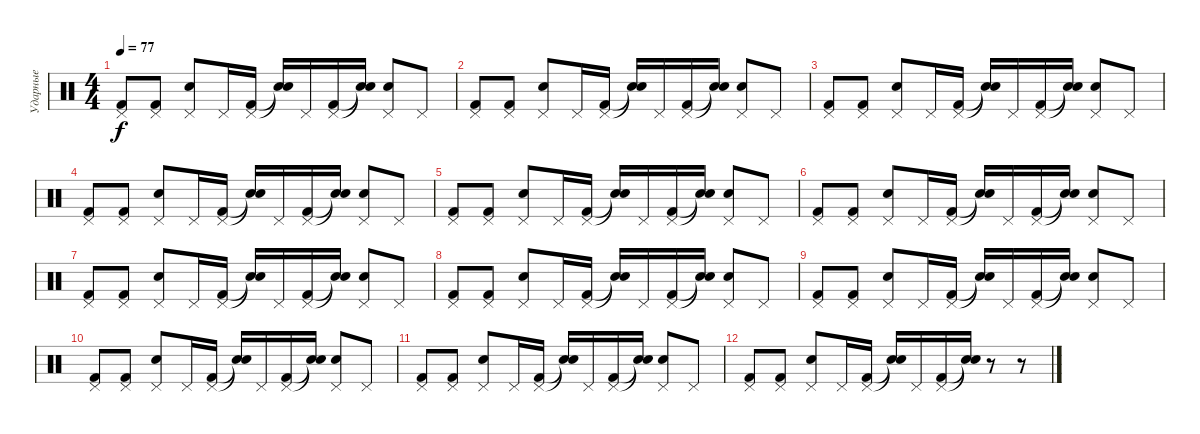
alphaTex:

\track ("Ударные" "Ударные") {instrument percussion}
\staff {score}
\articulation defaults
\ts (4 4)
\tempo 77
\clef neutral
\ks c
("Kick (hit) 2" "Pedal Hi-Hat (hit)").8{dy f} ("Kick (hit) 2" "Pedal Hi-Hat (hit)").8 ("Electric Snare (hit)" "Pedal Hi-Hat (hit)").8 "Pedal Hi-Hat (hit)".16 ("Kick (hit) 2" "Pedal Hi-Hat (hit)").16 ("Snare (hit)"{t} "Snare (hit)"{t}).16 "Pedal Hi-Hat (hit)".16 ("Kick (hit) 2" "Pedal Hi-Hat (hit)").16 ("Snare (hit)"{t} "Snare (hit)"{t}).16 ("Electric Snare (hit)" "Pedal Hi-Hat (hit)").8 "Pedal Hi-Hat (hit)".8 |
("Kick (hit) 2" "Pedal Hi-Hat (hit)").8 ("Kick (hit) 2" "Pedal Hi-Hat (hit)").8 ("Electric Snare (hit)" "Pedal Hi-Hat (hit)").8 "Pedal Hi-Hat (hit)".16 ("Kick (hit) 2" "Pedal Hi-Hat (hit)").16 ("Snare (hit)"{t} "Snare (hit)"{t}).16 "Pedal Hi-Hat (hit)".16 ("Kick (hit) 2" "Pedal Hi-Hat (hit)").16 ("Snare (hit)"{t} "Snare (hit)"{t}).16 ("Electric Snare (hit)" "Pedal Hi-Hat (hit)").8 "Pedal Hi-Hat (hit)".8 |
("Kick (hit) 2" "Pedal Hi-Hat (hit)").8 ("Kick (hit) 2" "Pedal Hi-Hat (hit)").8 ("Electric Snare (hit)" "Pedal Hi-Hat (hit)").8 "Pedal Hi-Hat (hit)".16 ("Kick (hit) 2" "Pedal Hi-Hat (hit)").16 ("Snare (hit)"{t} "Snare (hit)"{t}).16 "Pedal Hi-Hat (hit)".16 ("Kick (hit) 2" "Pedal Hi-Hat (hit)").16 ("Snare (hit)"{t} "Snare (hit)"{t}).16 ("Electric Snare (hit)" "Pedal Hi-Hat (hit)").8 "Pedal Hi-Hat (hit)".8 |
("Kick (hit) 2" "Pedal Hi-Hat (hit)").8 ("Kick (hit) 2" "Pedal Hi-Hat (hit)").8 ("Electric Snare (hit)" "Pedal Hi-Hat (hit)").8 "Pedal Hi-Hat (hit)".16 ("Kick (hit) 2" "Pedal Hi-Hat (hit)").16 ("Snare (hit)"{t} "Snare (hit)"{t}).16 "Pedal Hi-Hat (hit)".16 ("Kick (hit) 2" "Pedal Hi-Hat (hit)").16 ("Snare (hit)"{t} "Snare (hit)"{t}).16 ("Electric Snare (hit)" "Pedal Hi-Hat (hit)").8 "Pedal Hi-Hat (hit)".8 |
("Kick (hit) 2" "Pedal Hi-Hat (hit)").8 ("Kick (hit) 2" "Pedal Hi-Hat (hit)").8 ("Electric Snare (hit)" "Pedal Hi-Hat (hit)").8 "Pedal Hi-Hat (hit)".16 ("Kick (hit) 2" "Pedal Hi-Hat (hit)").16 ("Snare (hit)"{t} "Snare (hit)"{t}).16 "Pedal Hi-Hat (hit)".16 ("Kick (hit) 2" "Pedal Hi-Hat (hit)").16 ("Snare (hit)"{t} "Snare (hit)"{t}).16 ("Electric Snare (hit)" "Pedal Hi-Hat (hit)").8 "Pedal Hi-Hat (hit)".8 |
("Kick (hit) 2" "Pedal Hi-Hat (hit)").8 ("Kick (hit) 2" "Pedal Hi-Hat (hit)").8 ("Electric Snare (hit)" "Pedal Hi-Hat (hit)").8 "Pedal Hi-Hat (hit)".16 ("Kick (hit) 2" "Pedal Hi-Hat (hit)").16 ("Snare (hit)"{t} "Snare (hit)"{t}).16 "Pedal Hi-Hat (hit)".16 ("Kick (hit) 2" "Pedal Hi-Hat (hit)").16 ("Snare (hit)"{t} "Snare (hit)"{t}).16 ("Electric Snare (hit)" "Pedal Hi-Hat (hit)").8 "Pedal Hi-Hat (hit)".8 |
("Kick (hit) 2" "Pedal Hi-Hat (hit)").8 ("Kick (hit) 2" "Pedal Hi-Hat (hit)").8 ("Electric Snare (hit)" "Pedal Hi-Hat (hit)").8 "Pedal Hi-Hat (hit)".16 ("Kick (hit) 2" "Pedal Hi-Hat (hit)").16 ("Snare (hit)"{t} "Snare (hit)"{t}).16 "Pedal Hi-Hat (hit)".16 ("Kick (hit) 2" "Pedal Hi-Hat (hit)").16 ("Snare (hit)"{t} "Snare (hit)"{t}).16 ("Electric Snare (hit)" "Pedal Hi-Hat (hit)").8 "Pedal Hi-Hat (hit)".8 |
("Kick (hit) 2" "Pedal Hi-Hat (hit)").8 ("Kick (hit) 2" "Pedal Hi-Hat (hit)").8 ("Electric Snare (hit)" "Pedal Hi-Hat (hit)").8 "Pedal Hi-Hat (hit)".16 ("Kick (hit) 2" "Pedal Hi-Hat (hit)").16 ("Snare (hit)"{t} "Snare (hit)"{t}).16 "Pedal Hi-Hat (hit)".16 ("Kick (hit) 2" "Pedal Hi-Hat (hit)").16 ("Snare (hit)"{t} "Snare (hit)"{t}).16 ("Electric Snare (hit)" "Pedal Hi-Hat (hit)").8 "Pedal Hi-Hat (hit)".8 |
("Kick (hit) 2" "Pedal Hi-Hat (hit)").8 ("Kick (hit) 2" "Pedal Hi-Hat (hit)").8 ("Electric Snare (hit)" "Pedal Hi-Hat (hit)").8 "Pedal Hi-Hat (hit)".16 ("Kick (hit) 2" "Pedal Hi-Hat (hit)").16 ("Snare (hit)"{t} "Snare (hit)"{t}).16 "Pedal Hi-Hat (hit)".16 ("Kick (hit) 2" "Pedal Hi-Hat (hit)").16 ("Snare (hit)"{t} "Snare (hit)"{t}).16 ("Electric Snare (hit)" "Pedal Hi-Hat (hit)").8 "Pedal Hi-Hat (hit)".8 |
("Kick (hit) 2" "Pedal Hi-Hat (hit)").8 ("Kick (hit) 2" "Pedal Hi-Hat (hit)").8 ("Electric Snare (hit)" "Pedal Hi-Hat (hit)").8 "Pedal Hi-Hat (hit)".16 ("Kick (hit) 2" "Pedal Hi-Hat (hit)").16 ("Snare (hit)"{t} "Snare (hit)"{t}).16 "Pedal Hi-Hat (hit)".16 ("Kick (hit) 2" "Pedal Hi-Hat (hit)").16 ("Snare (hit)"{t} "Snare (hit)"{t}).16 ("Electric Snare (hit)" "Pedal Hi-Hat (hit)").8 "Pedal Hi-Hat (hit)".8 |
("Kick (hit) 2" "Pedal Hi-Hat (hit)").8 ("Kick (hit) 2" "Pedal Hi-Hat (hit)").8 ("Electric Snare (hit)" "Pedal Hi-Hat (hit)").8 "Pedal Hi-Hat (hit)".16 ("Kick (hit) 2" "Pedal Hi-Hat (hit)").16 ("Snare (hit)"{t} "Snare (hit)"{t}).16 "Pedal Hi-Hat (hit)".16 ("Kick (hit) 2" "Pedal Hi-Hat (hit)").16 ("Snare (hit)"{t} "Snare (hit)"{t}).16 ("Electric Snare (hit)" "Pedal Hi-Hat (hit)").8 "Pedal Hi-Hat (hit)".8 |
("Kick (hit) 2" "Pedal Hi-Hat (hit)").8 ("Kick (hit) 2" "Pedal Hi-Hat (hit)").8 ("Electric Snare (hit)" "Pedal Hi-Hat (hit)").8 "Pedal Hi-Hat (hit)".16 ("Kick (hit) 2" "Pedal Hi-Hat (hit)").16 ("Snare (hit)"{t} "Snare (hit)"{t}).16 "Pedal Hi-Hat (hit)".16 ("Kick (hit) 2" "Pedal Hi-Hat (hit)").16 ("Snare (hit)"{t} "Snare (hit)"{t}).16 r.8 r.8
